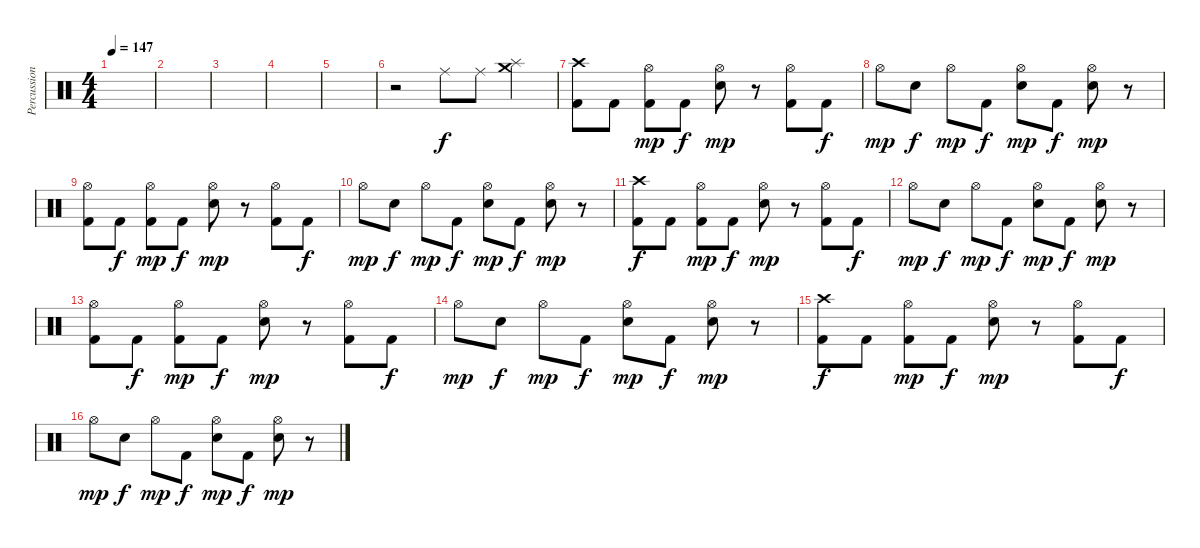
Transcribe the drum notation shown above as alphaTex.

\track ("Percussion" "Percussion") {instrument percussion}
\staff {score}
\articulation defaults
\ts (4 4)
\tempo 147
\clef neutral
\ks c
|
|
|
|
|
r.2 "Ride (middle)".8 "Ride (middle)".8 ("Crash medium (hit)" "Splash (hit)").4 |
("Crash high (hit)" "Kick (hit) 2").8 "Kick (hit) 2".8 ("Hi-Hat (open)" "Kick (hit) 2").8{dy mp} "Kick (hit) 2".8{dy f} ("Hi-Hat (open)" "Electric Snare (hit)").8{dy mp} r.8 ("Hi-Hat (open)" "Kick (hit) 2").8 "Kick (hit) 2".8{dy f} |
"Hi-Hat (open)".8{dy mp} "Electric Snare (hit)".8{dy f} "Hi-Hat (open)".8{dy mp} "Kick (hit) 2".8{dy f} ("Hi-Hat (open)" "Electric Snare (hit)").8{dy mp} "Kick (hit) 2".8{dy f} ("Hi-Hat (open)" "Electric Snare (hit)").8{dy mp} r.8 |
("Hi-Hat (open)" "Kick (hit) 2").8 "Kick (hit) 2".8{dy f} ("Hi-Hat (open)" "Kick (hit) 2").8{dy mp} "Kick (hit) 2".8{dy f} ("Hi-Hat (open)" "Electric Snare (hit)").8{dy mp} r.8 ("Hi-Hat (open)" "Kick (hit) 2").8 "Kick (hit) 2".8{dy f} |
"Hi-Hat (open)".8{dy mp} "Electric Snare (hit)".8{dy f} "Hi-Hat (open)".8{dy mp} "Kick (hit) 2".8{dy f} ("Hi-Hat (open)" "Electric Snare (hit)").8{dy mp} "Kick (hit) 2".8{dy f} ("Hi-Hat (open)" "Electric Snare (hit)").8{dy mp} r.8 |
("Crash high (hit)" "Kick (hit) 2").8{dy f} "Kick (hit) 2".8 ("Hi-Hat (open)" "Kick (hit) 2").8{dy mp} "Kick (hit) 2".8{dy f} ("Hi-Hat (open)" "Electric Snare (hit)").8{dy mp} r.8 ("Hi-Hat (open)" "Kick (hit) 2").8 "Kick (hit) 2".8{dy f} |
"Hi-Hat (open)".8{dy mp} "Electric Snare (hit)".8{dy f} "Hi-Hat (open)".8{dy mp} "Kick (hit) 2".8{dy f} ("Hi-Hat (open)" "Electric Snare (hit)").8{dy mp} "Kick (hit) 2".8{dy f} ("Hi-Hat (open)" "Electric Snare (hit)").8{dy mp} r.8 |
("Hi-Hat (open)" "Kick (hit) 2").8 "Kick (hit) 2".8{dy f} ("Hi-Hat (open)" "Kick (hit) 2").8{dy mp} "Kick (hit) 2".8{dy f} ("Hi-Hat (open)" "Electric Snare (hit)").8{dy mp} r.8 ("Hi-Hat (open)" "Kick (hit) 2").8 "Kick (hit) 2".8{dy f} |
"Hi-Hat (open)".8{dy mp} "Electric Snare (hit)".8{dy f} "Hi-Hat (open)".8{dy mp} "Kick (hit) 2".8{dy f} ("Hi-Hat (open)" "Electric Snare (hit)").8{dy mp} "Kick (hit) 2".8{dy f} ("Hi-Hat (open)" "Electric Snare (hit)").8{dy mp} r.8 |
("Crash high (hit)" "Kick (hit) 2").8{dy f} "Kick (hit) 2".8 ("Hi-Hat (open)" "Kick (hit) 2").8{dy mp} "Kick (hit) 2".8{dy f} ("Hi-Hat (open)" "Electric Snare (hit)").8{dy mp} r.8 ("Hi-Hat (open)" "Kick (hit) 2").8 "Kick (hit) 2".8{dy f} |
"Hi-Hat (open)".8{dy mp} "Electric Snare (hit)".8{dy f} "Hi-Hat (open)".8{dy mp} "Kick (hit) 2".8{dy f} ("Hi-Hat (open)" "Electric Snare (hit)").8{dy mp} "Kick (hit) 2".8{dy f} ("Hi-Hat (open)" "Electric Snare (hit)").8{dy mp} r.8
